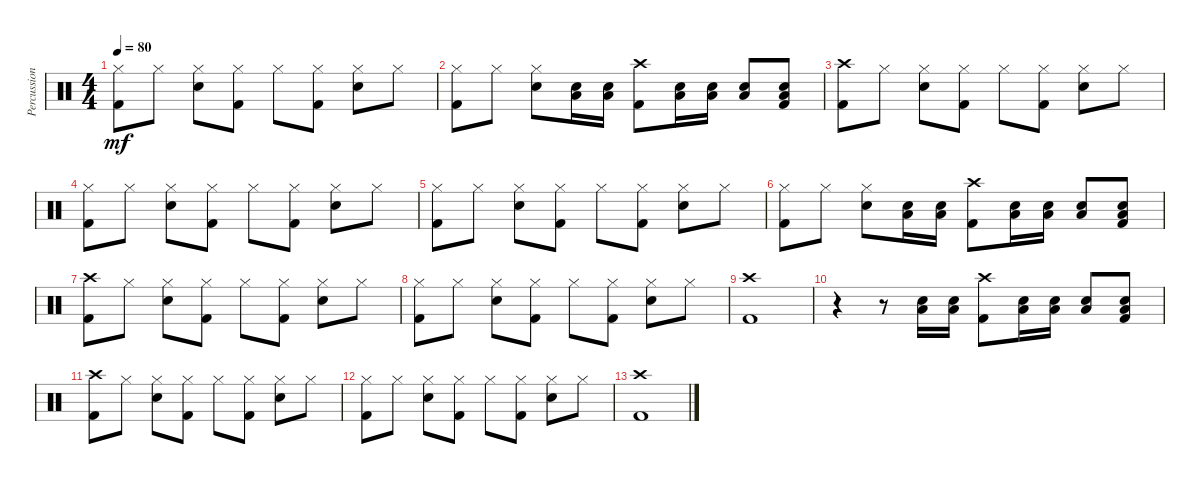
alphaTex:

\track ("Percussions" "Percussion") {instrument percussion}
\staff {score}
\articulation defaults
\ts (4 4)
\tempo 80
\clef neutral
\ks c
("Hi-Hat (closed)" "Kick (hit) 2").8{dy mf} "Hi-Hat (closed)".8 ("Hi-Hat (closed)" "Electric Snare (hit)").8 ("Hi-Hat (closed)" "Kick (hit) 2").8 "Hi-Hat (closed)".8 ("Hi-Hat (closed)" "Kick (hit) 2").8 ("Hi-Hat (closed)" "Electric Snare (hit)").8 "Hi-Hat (closed)".8 |
("Hi-Hat (closed)" "Kick (hit) 2").8 "Hi-Hat (closed)".8 ("Hi-Hat (closed)" "Electric Snare (hit)").8 ("Low Tom (hit)" "Snare (hit) 2").16 ("Low Tom (hit)" "Snare (hit) 2").16 ("Crash high (hit)" "Kick (hit) 2").8 ("Low Tom (hit)" "Snare (hit) 2").16 ("Low Tom (hit)" "Snare (hit) 2").16 ("Low Tom (hit)" "Snare (hit) 2").8 ("Low Tom (hit)" "Snare (hit) 2" "Kick (hit) 2").8 |
("Crash high (hit)" "Kick (hit) 2").8 "Hi-Hat (closed)".8 ("Hi-Hat (closed)" "Electric Snare (hit)").8 ("Hi-Hat (closed)" "Kick (hit) 2").8 "Hi-Hat (closed)".8 ("Hi-Hat (closed)" "Kick (hit) 2").8 ("Hi-Hat (closed)" "Electric Snare (hit)").8 "Hi-Hat (closed)".8 |
("Hi-Hat (closed)" "Kick (hit) 2").8 "Hi-Hat (closed)".8 ("Hi-Hat (closed)" "Electric Snare (hit)").8 ("Hi-Hat (closed)" "Kick (hit) 2").8 "Hi-Hat (closed)".8 ("Hi-Hat (closed)" "Kick (hit) 2").8 ("Hi-Hat (closed)" "Electric Snare (hit)").8 "Hi-Hat (closed)".8 |
("Hi-Hat (closed)" "Kick (hit) 2").8 "Hi-Hat (closed)".8 ("Hi-Hat (closed)" "Electric Snare (hit)").8 ("Hi-Hat (closed)" "Kick (hit) 2").8 "Hi-Hat (closed)".8 ("Hi-Hat (closed)" "Kick (hit) 2").8 ("Hi-Hat (closed)" "Electric Snare (hit)").8 "Hi-Hat (closed)".8 |
("Hi-Hat (closed)" "Kick (hit) 2").8 "Hi-Hat (closed)".8 ("Hi-Hat (closed)" "Electric Snare (hit)").8 ("Low Tom (hit)" "Snare (hit) 2").16 ("Low Tom (hit)" "Snare (hit) 2").16 ("Crash high (hit)" "Kick (hit) 2").8 ("Low Tom (hit)" "Snare (hit) 2").16 ("Low Tom (hit)" "Snare (hit) 2").16 ("Low Tom (hit)" "Snare (hit) 2").8 ("Low Tom (hit)" "Snare (hit) 2" "Kick (hit) 2").8 |
("Crash high (hit)" "Kick (hit) 2").8 "Hi-Hat (closed)".8 ("Hi-Hat (closed)" "Electric Snare (hit)").8 ("Hi-Hat (closed)" "Kick (hit) 2").8 "Hi-Hat (closed)".8 ("Hi-Hat (closed)" "Kick (hit) 2").8 ("Hi-Hat (closed)" "Electric Snare (hit)").8 "Hi-Hat (closed)".8 |
("Hi-Hat (closed)" "Kick (hit) 2").8 "Hi-Hat (closed)".8 ("Hi-Hat (closed)" "Electric Snare (hit)").8 ("Hi-Hat (closed)" "Kick (hit) 2").8 "Hi-Hat (closed)".8 ("Hi-Hat (closed)" "Kick (hit) 2").8 ("Hi-Hat (closed)" "Electric Snare (hit)").8 "Hi-Hat (closed)".8 |
("Crash high (hit)" "Kick (hit) 2").1 |
r.4 r.8 ("Low Tom (hit)" "Snare (hit) 2").16 ("Low Tom (hit)" "Snare (hit) 2").16 ("Crash high (hit)" "Kick (hit) 2").8 ("Low Tom (hit)" "Snare (hit) 2").16 ("Low Tom (hit)" "Snare (hit) 2").16 ("Low Tom (hit)" "Snare (hit) 2").8 ("Low Tom (hit)" "Snare (hit) 2" "Kick (hit) 2").8 |
("Crash high (hit)" "Kick (hit) 2").8 "Hi-Hat (closed)".8 ("Hi-Hat (closed)" "Electric Snare (hit)").8 ("Hi-Hat (closed)" "Kick (hit) 2").8 "Hi-Hat (closed)".8 ("Hi-Hat (closed)" "Kick (hit) 2").8 ("Hi-Hat (closed)" "Electric Snare (hit)").8 "Hi-Hat (closed)".8 |
("Hi-Hat (closed)" "Kick (hit) 2").8 "Hi-Hat (closed)".8 ("Hi-Hat (closed)" "Electric Snare (hit)").8 ("Hi-Hat (closed)" "Kick (hit) 2").8 "Hi-Hat (closed)".8 ("Hi-Hat (closed)" "Kick (hit) 2").8 ("Hi-Hat (closed)" "Electric Snare (hit)").8 "Hi-Hat (closed)".8 |
("Crash high (hit)" "Kick (hit) 2").1
